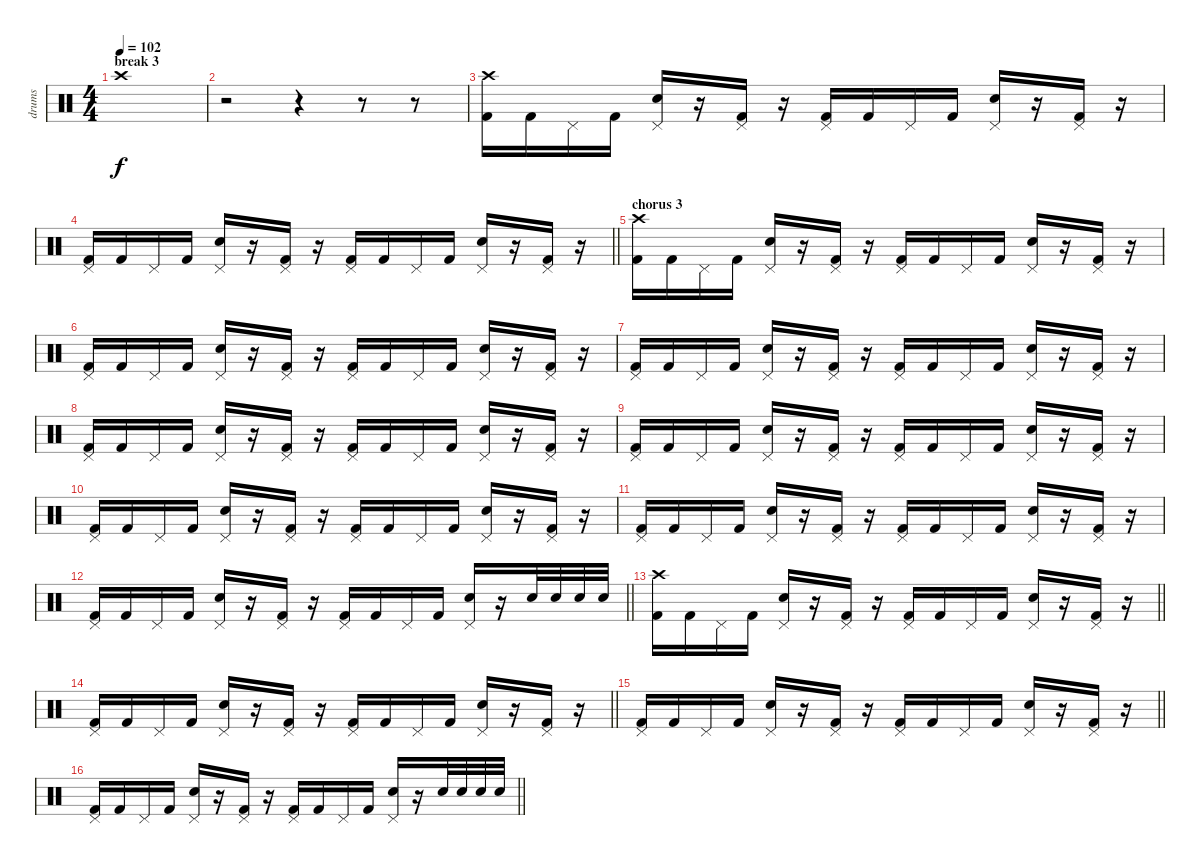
\track ("drums" "drums") {instrument percussion}
\staff {score}
\articulation defaults
\ts (4 4)
\section ("" "break 3")
\tempo 102
\clef neutral
\ks c "Crash high (hit)".1{dy f}
|
r.2 r.4 r.8 r.8 |
("Kick (hit) 2" "Crash high (hit)").16 "Kick (hit) 2".16 "Pedal Hi-Hat (hit)".16 "Kick (hit) 2".16 ("Electric Snare (hit)" "Pedal Hi-Hat (hit)").16 r.16 ("Kick (hit) 2" "Pedal Hi-Hat (hit)").16 r.16 ("Kick (hit) 2" "Pedal Hi-Hat (hit)").16 "Kick (hit) 2".16 "Pedal Hi-Hat (hit)".16 "Kick (hit) 2".16 ("Electric Snare (hit)" "Pedal Hi-Hat (hit)").16 r.16 ("Kick (hit) 2" "Pedal Hi-Hat (hit)").16 r.16 |
\barLineRight lightlight
("Kick (hit) 2" "Pedal Hi-Hat (hit)").16 "Kick (hit) 2".16 "Pedal Hi-Hat (hit)".16 "Kick (hit) 2".16 ("Electric Snare (hit)" "Pedal Hi-Hat (hit)").16 r.16 ("Kick (hit) 2" "Pedal Hi-Hat (hit)").16 r.16 ("Kick (hit) 2" "Pedal Hi-Hat (hit)").16 "Kick (hit) 2".16 "Pedal Hi-Hat (hit)".16 "Kick (hit) 2".16 ("Electric Snare (hit)" "Pedal Hi-Hat (hit)").16 r.16 ("Kick (hit) 2" "Pedal Hi-Hat (hit)").16 r.16 |
\section ("" "chorus 3")
("Kick (hit) 2" "Crash high (hit)").16 "Kick (hit) 2".16 "Pedal Hi-Hat (hit)".16 "Kick (hit) 2".16 ("Electric Snare (hit)" "Pedal Hi-Hat (hit)").16 r.16 ("Kick (hit) 2" "Pedal Hi-Hat (hit)").16 r.16 ("Kick (hit) 2" "Pedal Hi-Hat (hit)").16 "Kick (hit) 2".16 "Pedal Hi-Hat (hit)".16 "Kick (hit) 2".16 ("Electric Snare (hit)" "Pedal Hi-Hat (hit)").16 r.16 ("Kick (hit) 2" "Pedal Hi-Hat (hit)").16 r.16 |
("Kick (hit) 2" "Pedal Hi-Hat (hit)").16 "Kick (hit) 2".16 "Pedal Hi-Hat (hit)".16 "Kick (hit) 2".16 ("Electric Snare (hit)" "Pedal Hi-Hat (hit)").16 r.16 ("Kick (hit) 2" "Pedal Hi-Hat (hit)").16 r.16 ("Kick (hit) 2" "Pedal Hi-Hat (hit)").16 "Kick (hit) 2".16 "Pedal Hi-Hat (hit)".16 "Kick (hit) 2".16 ("Electric Snare (hit)" "Pedal Hi-Hat (hit)").16 r.16 ("Kick (hit) 2" "Pedal Hi-Hat (hit)").16 r.16 |
("Kick (hit) 2" "Pedal Hi-Hat (hit)").16 "Kick (hit) 2".16 "Pedal Hi-Hat (hit)".16 "Kick (hit) 2".16 ("Electric Snare (hit)" "Pedal Hi-Hat (hit)").16 r.16 ("Kick (hit) 2" "Pedal Hi-Hat (hit)").16 r.16 ("Kick (hit) 2" "Pedal Hi-Hat (hit)").16 "Kick (hit) 2".16 "Pedal Hi-Hat (hit)".16 "Kick (hit) 2".16 ("Electric Snare (hit)" "Pedal Hi-Hat (hit)").16 r.16 ("Kick (hit) 2" "Pedal Hi-Hat (hit)").16 r.16 |
("Kick (hit) 2" "Pedal Hi-Hat (hit)").16 "Kick (hit) 2".16 "Pedal Hi-Hat (hit)".16 "Kick (hit) 2".16 ("Electric Snare (hit)" "Pedal Hi-Hat (hit)").16 r.16 ("Kick (hit) 2" "Pedal Hi-Hat (hit)").16 r.16 ("Kick (hit) 2" "Pedal Hi-Hat (hit)").16 "Kick (hit) 2".16 "Pedal Hi-Hat (hit)".16 "Kick (hit) 2".16 ("Electric Snare (hit)" "Pedal Hi-Hat (hit)").16 r.16 ("Kick (hit) 2" "Pedal Hi-Hat (hit)").16 r.16 |
("Kick (hit) 2" "Pedal Hi-Hat (hit)").16 "Kick (hit) 2".16 "Pedal Hi-Hat (hit)".16 "Kick (hit) 2".16 ("Electric Snare (hit)" "Pedal Hi-Hat (hit)").16 r.16 ("Kick (hit) 2" "Pedal Hi-Hat (hit)").16 r.16 ("Kick (hit) 2" "Pedal Hi-Hat (hit)").16 "Kick (hit) 2".16 "Pedal Hi-Hat (hit)".16 "Kick (hit) 2".16 ("Electric Snare (hit)" "Pedal Hi-Hat (hit)").16 r.16 ("Kick (hit) 2" "Pedal Hi-Hat (hit)").16 r.16 |
("Kick (hit) 2" "Pedal Hi-Hat (hit)").16 "Kick (hit) 2".16 "Pedal Hi-Hat (hit)".16 "Kick (hit) 2".16 ("Electric Snare (hit)" "Pedal Hi-Hat (hit)").16 r.16 ("Kick (hit) 2" "Pedal Hi-Hat (hit)").16 r.16 ("Kick (hit) 2" "Pedal Hi-Hat (hit)").16 "Kick (hit) 2".16 "Pedal Hi-Hat (hit)".16 "Kick (hit) 2".16 ("Electric Snare (hit)" "Pedal Hi-Hat (hit)").16 r.16 ("Kick (hit) 2" "Pedal Hi-Hat (hit)").16 r.16 |
("Kick (hit) 2" "Pedal Hi-Hat (hit)").16 "Kick (hit) 2".16 "Pedal Hi-Hat (hit)".16 "Kick (hit) 2".16 ("Electric Snare (hit)" "Pedal Hi-Hat (hit)").16 r.16 ("Kick (hit) 2" "Pedal Hi-Hat (hit)").16 r.16 ("Kick (hit) 2" "Pedal Hi-Hat (hit)").16 "Kick (hit) 2".16 "Pedal Hi-Hat (hit)".16 "Kick (hit) 2".16 ("Electric Snare (hit)" "Pedal Hi-Hat (hit)").16 r.16 ("Kick (hit) 2" "Pedal Hi-Hat (hit)").16 r.16 |
\barLineRight lightlight
("Kick (hit) 2" "Pedal Hi-Hat (hit)").16 "Kick (hit) 2".16 "Pedal Hi-Hat (hit)".16 "Kick (hit) 2".16 ("Electric Snare (hit)" "Pedal Hi-Hat (hit)").16 r.16 ("Kick (hit) 2" "Pedal Hi-Hat (hit)").16 r.16 ("Kick (hit) 2" "Pedal Hi-Hat (hit)").16 "Kick (hit) 2".16 "Pedal Hi-Hat (hit)".16 "Kick (hit) 2".16 ("Electric Snare (hit)" "Pedal Hi-Hat (hit)").16 r.16 "Electric Snare (hit)".32 "Electric Snare (hit)".32 "Electric Snare (hit)".32 "Electric Snare (hit)".32 |
\barLineRight lightlight
("Kick (hit) 2" "Crash high (hit)").16 "Kick (hit) 2".16 "Pedal Hi-Hat (hit)".16 "Kick (hit) 2".16 ("Electric Snare (hit)" "Pedal Hi-Hat (hit)").16 r.16 ("Kick (hit) 2" "Pedal Hi-Hat (hit)").16 r.16 ("Kick (hit) 2" "Pedal Hi-Hat (hit)").16 "Kick (hit) 2".16 "Pedal Hi-Hat (hit)".16 "Kick (hit) 2".16 ("Electric Snare (hit)" "Pedal Hi-Hat (hit)").16 r.16 ("Kick (hit) 2" "Pedal Hi-Hat (hit)").16 r.16 |
\barLineRight lightlight
("Kick (hit) 2" "Pedal Hi-Hat (hit)").16 "Kick (hit) 2".16 "Pedal Hi-Hat (hit)".16 "Kick (hit) 2".16 ("Electric Snare (hit)" "Pedal Hi-Hat (hit)").16 r.16 ("Kick (hit) 2" "Pedal Hi-Hat (hit)").16 r.16 ("Kick (hit) 2" "Pedal Hi-Hat (hit)").16 "Kick (hit) 2".16 "Pedal Hi-Hat (hit)".16 "Kick (hit) 2".16 ("Electric Snare (hit)" "Pedal Hi-Hat (hit)").16 r.16 ("Kick (hit) 2" "Pedal Hi-Hat (hit)").16 r.16 |
\barLineRight lightlight
("Kick (hit) 2" "Pedal Hi-Hat (hit)").16 "Kick (hit) 2".16 "Pedal Hi-Hat (hit)".16 "Kick (hit) 2".16 ("Electric Snare (hit)" "Pedal Hi-Hat (hit)").16 r.16 ("Kick (hit) 2" "Pedal Hi-Hat (hit)").16 r.16 ("Kick (hit) 2" "Pedal Hi-Hat (hit)").16 "Kick (hit) 2".16 "Pedal Hi-Hat (hit)".16 "Kick (hit) 2".16 ("Electric Snare (hit)" "Pedal Hi-Hat (hit)").16 r.16 ("Kick (hit) 2" "Pedal Hi-Hat (hit)").16 r.16 |
\barLineRight lightlight
("Kick (hit) 2" "Pedal Hi-Hat (hit)").16 "Kick (hit) 2".16 "Pedal Hi-Hat (hit)".16 "Kick (hit) 2".16 ("Electric Snare (hit)" "Pedal Hi-Hat (hit)").16 r.16 ("Kick (hit) 2" "Pedal Hi-Hat (hit)").16 r.16 ("Kick (hit) 2" "Pedal Hi-Hat (hit)").16 "Kick (hit) 2".16 "Pedal Hi-Hat (hit)".16 "Kick (hit) 2".16 ("Electric Snare (hit)" "Pedal Hi-Hat (hit)").16 r.16 "Electric Snare (hit)".32 "Electric Snare (hit)".32 "Electric Snare (hit)".32 "Electric Snare (hit)".32
